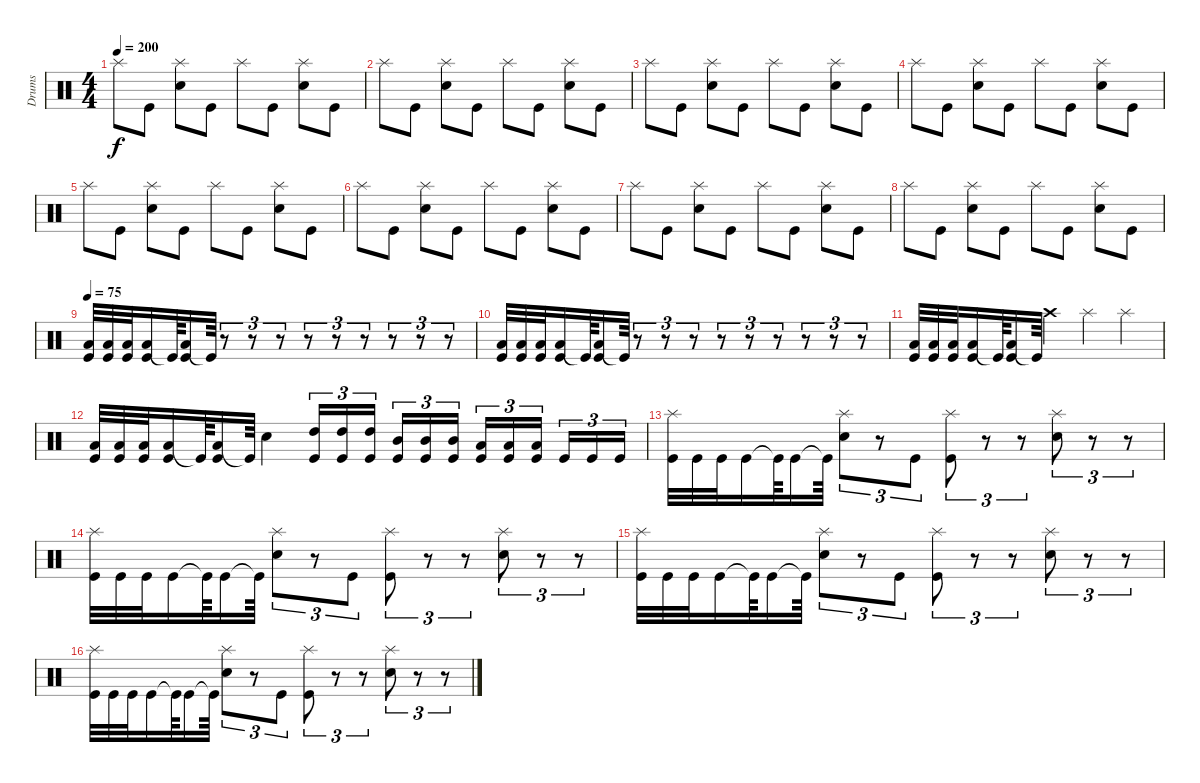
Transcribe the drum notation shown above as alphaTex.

\track ("Drums" "Drums") {instrument percussion}
\staff {score}
\articulation defaults
\ts (4 4)
\tempo 200
\clef neutral
\ks c "Splash (hit)".8{dy f} "Kick (hit)".8
("Splash (hit)" "Snare (hit) 2").8 "Kick (hit)".8 "Splash (hit)".8 "Kick (hit)".8 ("Splash (hit)" "Snare (hit) 2").8 "Kick (hit)".8 |
"Splash (hit)".8 "Kick (hit)".8 ("Splash (hit)" "Snare (hit) 2").8 "Kick (hit)".8 "Splash (hit)".8 "Kick (hit)".8 ("Splash (hit)" "Snare (hit) 2").8 "Kick (hit)".8 |
"Splash (hit)".8 "Kick (hit)".8 ("Splash (hit)" "Snare (hit) 2").8 "Kick (hit)".8 "Splash (hit)".8 "Kick (hit)".8 ("Splash (hit)" "Snare (hit) 2").8 "Kick (hit)".8 |
"Splash (hit)".8 "Kick (hit)".8 ("Splash (hit)" "Snare (hit) 2").8 "Kick (hit)".8 "Splash (hit)".8 "Kick (hit)".8 ("Splash (hit)" "Snare (hit) 2").8 "Kick (hit)".8 |
"Splash (hit)".8 "Kick (hit)".8 ("Splash (hit)" "Snare (hit) 2").8 "Kick (hit)".8 "Splash (hit)".8 "Kick (hit)".8 ("Splash (hit)" "Snare (hit) 2").8 "Kick (hit)".8 |
"Splash (hit)".8 "Kick (hit)".8 ("Splash (hit)" "Snare (hit) 2").8 "Kick (hit)".8 "Splash (hit)".8 "Kick (hit)".8 ("Splash (hit)" "Snare (hit) 2").8 "Kick (hit)".8 |
"Splash (hit)".8 "Kick (hit)".8 ("Splash (hit)" "Snare (hit) 2").8 "Kick (hit)".8 "Splash (hit)".8 "Kick (hit)".8 ("Splash (hit)" "Snare (hit) 2").8 "Kick (hit)".8 |
"Splash (hit)".8 "Kick (hit)".8 ("Splash (hit)" "Snare (hit) 2").8 "Kick (hit)".8 "Splash (hit)".8 "Kick (hit)".8 ("Splash (hit)" "Snare (hit) 2").8 "Kick (hit)".8 |
\tempo 75
("Low Tom (hit)" "Kick (hit)").32 ("Low Tom (hit)" "Kick (hit)").32 ("Low Tom (hit)" "Kick (hit)").32 ("Low Tom (hit)" "Kick (hit)").16 "Kick (hit)"{t}.64 ("Low Tom (hit)" "Kick (hit)").16 "Kick (hit)"{t}.64 r.8{tu (3 2)} r.8{tu (3 2)} r.8{tu (3 2)} r.8{tu (3 2)} r.8{tu (3 2)} r.8{tu (3 2)} r.8{tu (3 2)} r.8{tu (3 2)} r.8{tu (3 2)} |
("Low Tom (hit)" "Kick (hit)").32 ("Low Tom (hit)" "Kick (hit)").32 ("Low Tom (hit)" "Kick (hit)").32 ("Low Tom (hit)" "Kick (hit)").16 "Kick (hit)"{t}.64 ("Low Tom (hit)" "Kick (hit)").16 "Kick (hit)"{t}.64 r.8{tu (3 2)} r.8{tu (3 2)} r.8{tu (3 2)} r.8{tu (3 2)} r.8{tu (3 2)} r.8{tu (3 2)} r.8{tu (3 2)} r.8{tu (3 2)} r.8{tu (3 2)} |
("Low Tom (hit)" "Kick (hit)").32 ("Low Tom (hit)" "Kick (hit)").32 ("Low Tom (hit)" "Kick (hit)").32 ("Low Tom (hit)" "Kick (hit)").16 "Kick (hit)"{t}.64 ("Low Tom (hit)" "Kick (hit)").16 "Kick (hit)"{t}.64 "Crash high (hit)".4 "Splash (hit)".4 "Splash (hit)".4 |
("Low Tom (hit)" "Kick (hit)").32 ("Low Tom (hit)" "Kick (hit)").32 ("Low Tom (hit)" "Kick (hit)").32 ("Low Tom (hit)" "Kick (hit)").16 "Kick (hit)"{t}.64 ("Low Tom (hit)" "Kick (hit)").16 "Kick (hit)"{t}.64 "Snare (hit) 2".4 ("High Tom (hit)" "Kick (hit)").16{tu (3 2)} ("High Tom (hit)" "Kick (hit)").16{tu (3 2)} ("High Tom (hit)" "Kick (hit)").16{tu (3 2) beam splitsecondary} ("Mid Tom (hit)" "Kick (hit)").16{tu (3 2)} ("Mid Tom (hit)" "Kick (hit)").16{tu (3 2)} ("Mid Tom (hit)" "Kick (hit)").16{tu (3 2)} ("Low Tom (hit)" "Kick (hit)").16{tu (3 2)} ("Low Tom (hit)" "Kick (hit)").16{tu (3 2)} ("Low Tom (hit)" "Kick (hit)").16{tu (3 2) beam splitsecondary} "Kick (hit)".16{tu (3 2)} "Kick (hit)".16{tu (3 2)} "Kick (hit)".16{tu (3 2)} |
("Splash (hit)" "Kick (hit)").32 "Kick (hit)".32 "Kick (hit)".32 "Kick (hit)".16 "Kick (hit)"{t}.64 "Kick (hit)".16 "Kick (hit)"{t}.64 ("Splash (hit)" "Snare (hit) 2").8{tu (3 2)} r.8{tu (3 2)} "Kick (hit)".8{tu (3 2)} ("Splash (hit)" "Kick (hit)").8{tu (3 2)} r.8{tu (3 2)} r.8{tu (3 2)} ("Splash (hit)" "Snare (hit) 2").8{tu (3 2)} r.8{tu (3 2)} r.8{tu (3 2)} |
("Splash (hit)" "Kick (hit)").32 "Kick (hit)".32 "Kick (hit)".32 "Kick (hit)".16 "Kick (hit)"{t}.64 "Kick (hit)".16 "Kick (hit)"{t}.64 ("Splash (hit)" "Snare (hit) 2").8{tu (3 2)} r.8{tu (3 2)} "Kick (hit)".8{tu (3 2)} ("Splash (hit)" "Kick (hit)").8{tu (3 2)} r.8{tu (3 2)} r.8{tu (3 2)} ("Splash (hit)" "Snare (hit) 2").8{tu (3 2)} r.8{tu (3 2)} r.8{tu (3 2)} |
("Splash (hit)" "Kick (hit)").32 "Kick (hit)".32 "Kick (hit)".32 "Kick (hit)".16 "Kick (hit)"{t}.64 "Kick (hit)".16 "Kick (hit)"{t}.64 ("Splash (hit)" "Snare (hit) 2").8{tu (3 2)} r.8{tu (3 2)} "Kick (hit)".8{tu (3 2)} ("Splash (hit)" "Kick (hit)").8{tu (3 2)} r.8{tu (3 2)} r.8{tu (3 2)} ("Splash (hit)" "Snare (hit) 2").8{tu (3 2)} r.8{tu (3 2)} r.8{tu (3 2)} |
("Splash (hit)" "Kick (hit)").32 "Kick (hit)".32 "Kick (hit)".32 "Kick (hit)".16 "Kick (hit)"{t}.64 "Kick (hit)".16 "Kick (hit)"{t}.64 ("Splash (hit)" "Snare (hit) 2").8{tu (3 2)} r.8{tu (3 2)} "Kick (hit)".8{tu (3 2)} ("Splash (hit)" "Kick (hit)").8{tu (3 2)} r.8{tu (3 2)} r.8{tu (3 2)} ("Splash (hit)" "Snare (hit) 2").8{tu (3 2)} r.8{tu (3 2)} r.8{tu (3 2)}
